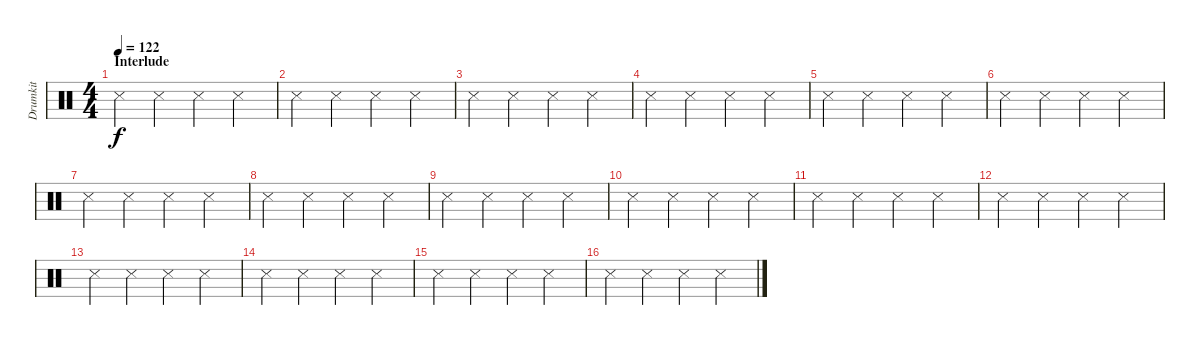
\track ("Drumkit" "Drumkit") {mute instrument percussion}
\staff {score}
\articulation defaults
\ts (4 4)
\section ("" "Interlude")
\tempo 122
\clef neutral
\ks c "Snare (side stick) 3".4{dy f} "Snare (side stick) 3".4 "Snare (side stick) 3".4 "Snare (side stick) 3".4
|
"Snare (side stick) 3".4 "Snare (side stick) 3".4 "Snare (side stick) 3".4 "Snare (side stick) 3".4 |
"Snare (side stick) 3".4 "Snare (side stick) 3".4 "Snare (side stick) 3".4 "Snare (side stick) 3".4 |
"Snare (side stick) 3".4 "Snare (side stick) 3".4 "Snare (side stick) 3".4 "Snare (side stick) 3".4 |
"Snare (side stick) 3".4 "Snare (side stick) 3".4 "Snare (side stick) 3".4 "Snare (side stick) 3".4 |
"Snare (side stick) 3".4 "Snare (side stick) 3".4 "Snare (side stick) 3".4 "Snare (side stick) 3".4 |
"Snare (side stick) 3".4 "Snare (side stick) 3".4 "Snare (side stick) 3".4 "Snare (side stick) 3".4 |
"Snare (side stick) 3".4 "Snare (side stick) 3".4 "Snare (side stick) 3".4 "Snare (side stick) 3".4 |
"Snare (side stick) 3".4 "Snare (side stick) 3".4 "Snare (side stick) 3".4 "Snare (side stick) 3".4 |
"Snare (side stick) 3".4 "Snare (side stick) 3".4 "Snare (side stick) 3".4 "Snare (side stick) 3".4 |
"Snare (side stick) 3".4 "Snare (side stick) 3".4 "Snare (side stick) 3".4 "Snare (side stick) 3".4 |
"Snare (side stick) 3".4 "Snare (side stick) 3".4 "Snare (side stick) 3".4 "Snare (side stick) 3".4 |
"Snare (side stick) 3".4 "Snare (side stick) 3".4 "Snare (side stick) 3".4 "Snare (side stick) 3".4 |
"Snare (side stick) 3".4 "Snare (side stick) 3".4 "Snare (side stick) 3".4 "Snare (side stick) 3".4 |
"Snare (side stick) 3".4 "Snare (side stick) 3".4 "Snare (side stick) 3".4 "Snare (side stick) 3".4 |
"Snare (side stick) 3".4 "Snare (side stick) 3".4 "Snare (side stick) 3".4 "Snare (side stick) 3".4
